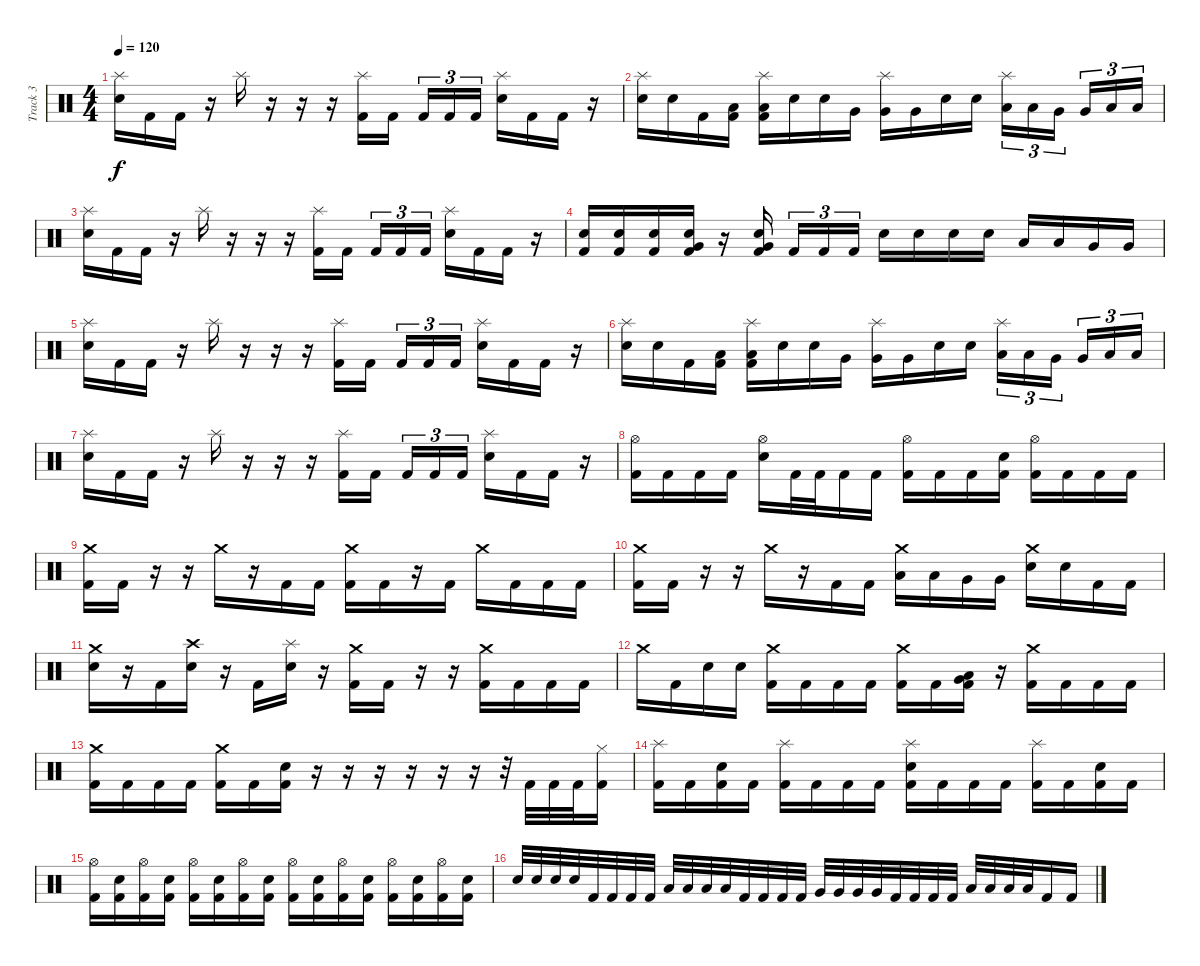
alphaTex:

\track ("Track 3" "Track 3") {instrument percussion}
\staff {score}
\articulation defaults
\ts (4 4)
\tempo 120
\clef neutral
\ks c
("Splash (hit)" "Electric Snare (hit)").16{dy f} "Kick (hit) 2".16 "Kick (hit) 2".16 r.16 "Splash (hit)".16 r.16 r.16 r.16 ("Splash (hit)" "Kick (hit) 2").16 "Kick (hit) 2".16 "Kick (hit) 2".16{tu (3 2)} "Kick (hit) 2".16{tu (3 2)} "Kick (hit) 2".16{tu (3 2)} ("Splash (hit)" "Electric Snare (hit)").16 "Kick (hit) 2".16 "Kick (hit) 2".16 r.16 |
("Splash (hit)" "Electric Snare (hit)").16 "Electric Snare (hit)".16 "Kick (hit) 2".16 ("Kick (hit) 2" "Low Tom (hit)").16 ("Splash (hit)" "Kick (hit) 2" "Low Tom (hit)").16 "Electric Snare (hit)".16 "Electric Snare (hit)".16 "Very Low Tom (hit)".16 ("Splash (hit)" "Very Low Tom (hit)").16 "Very Low Tom (hit)".16 "Electric Snare (hit)".16 "Electric Snare (hit)".16 ("Splash (hit)" "Low Tom (hit)").16{tu (3 2)} "Low Tom (hit)".16{tu (3 2)} "Very Low Tom (hit)".16{tu (3 2)} "Very Low Tom (hit)".16{tu (3 2)} "Low Floor Tom (hit)".16{tu (3 2)} "Low Floor Tom (hit)".16{tu (3 2)} |
("Splash (hit)" "Electric Snare (hit)").16 "Kick (hit) 2".16 "Kick (hit) 2".16 r.16 "Splash (hit)".16 r.16 r.16 r.16 ("Splash (hit)" "Kick (hit) 2").16 "Kick (hit) 2".16 "Kick (hit) 2".16{tu (3 2)} "Kick (hit) 2".16{tu (3 2)} "Kick (hit) 2".16{tu (3 2)} ("Splash (hit)" "Electric Snare (hit)").16 "Kick (hit) 2".16 "Kick (hit) 2".16 r.16 |
("Kick (hit) 2" "Electric Snare (hit)").16 ("Kick (hit) 2" "Electric Snare (hit)").16 ("Kick (hit) 2" "Electric Snare (hit)").16 ("Kick (hit) 2" "Very Low Tom (hit)" "Electric Snare (hit)").16 r.16 ("Kick (hit) 2" "Very Low Tom (hit)" "Electric Snare (hit)").16 "Kick (hit) 2".16{tu (3 2)} "Kick (hit) 2".16{tu (3 2)} "Kick (hit) 2".16{tu (3 2)} "Electric Snare (hit)".16 "Electric Snare (hit)".16 "Electric Snare (hit)".16 "Electric Snare (hit)".16 "Low Tom (hit)".16 "Low Tom (hit)".16 "Very Low Tom (hit)".16 "Very Low Tom (hit)".16 |
("Splash (hit)" "Electric Snare (hit)").16 "Kick (hit) 2".16 "Kick (hit) 2".16 r.16 "Splash (hit)".16 r.16 r.16 r.16 ("Splash (hit)" "Kick (hit) 2").16 "Kick (hit) 2".16 "Kick (hit) 2".16{tu (3 2)} "Kick (hit) 2".16{tu (3 2)} "Kick (hit) 2".16{tu (3 2)} ("Splash (hit)" "Electric Snare (hit)").16 "Kick (hit) 2".16 "Kick (hit) 2".16 r.16 |
("Splash (hit)" "Electric Snare (hit)").16 "Electric Snare (hit)".16 "Kick (hit) 2".16 ("Kick (hit) 2" "Low Tom (hit)").16 ("Splash (hit)" "Kick (hit) 2" "Low Tom (hit)").16 "Electric Snare (hit)".16 "Electric Snare (hit)".16 "Very Low Tom (hit)".16 ("Splash (hit)" "Very Low Tom (hit)").16 "Very Low Tom (hit)".16 "Electric Snare (hit)".16 "Electric Snare (hit)".16 ("Splash (hit)" "Low Tom (hit)").16{tu (3 2)} "Low Tom (hit)".16{tu (3 2)} "Very Low Tom (hit)".16{tu (3 2)} "Very Low Tom (hit)".16{tu (3 2)} "Low Floor Tom (hit)".16{tu (3 2)} "Low Floor Tom (hit)".16{tu (3 2)} |
("Splash (hit)" "Electric Snare (hit)").16 "Kick (hit) 2".16 "Kick (hit) 2".16 r.16 "Splash (hit)".16 r.16 r.16 r.16 ("Splash (hit)" "Kick (hit) 2").16 "Kick (hit) 2".16 "Kick (hit) 2".16{tu (3 2)} "Kick (hit) 2".16{tu (3 2)} "Kick (hit) 2".16{tu (3 2)} ("Splash (hit)" "Electric Snare (hit)").16 "Kick (hit) 2".16 "Kick (hit) 2".16 r.16 |
("Kick (hit) 2" "Hi-Hat (open)").16 "Kick (hit) 2".16 "Kick (hit) 2".16 "Kick (hit) 2".16 ("Electric Snare (hit)" "Hi-Hat (open)").16 "Kick (hit) 2".32 "Kick (hit) 2".32 "Kick (hit) 2".16 "Kick (hit) 2".16 ("Kick (hit) 2" "Hi-Hat (open)").16 "Kick (hit) 2".16 "Kick (hit) 2".16 ("Kick (hit) 2" "Electric Snare (hit)").16 ("Kick (hit) 2" "Hi-Hat (open)").16 "Kick (hit) 2".16 "Kick (hit) 2".16 "Kick (hit) 2".16 |
("Crash medium (hit)" "Kick (hit) 2").16 "Kick (hit) 2".16 r.16 r.16 "Crash medium (hit)".16 r.16 "Kick (hit) 2".16 "Kick (hit) 2".16 ("Crash medium (hit)" "Kick (hit) 2").16 "Kick (hit) 2".16 r.16 "Kick (hit) 2".16 "Crash medium (hit)".16 "Kick (hit) 2".16 "Kick (hit) 2".16 "Kick (hit) 2".16 |
("Crash medium (hit)" "Kick (hit) 2").16 "Kick (hit) 2".16 r.16 r.16 "Crash medium (hit)".16 r.16 "Kick (hit) 2".16 "Kick (hit) 2".16 ("Crash medium (hit)" "Low Tom (hit)").16 "Low Tom (hit)".16 "Very Low Tom (hit)".16 "Very Low Tom (hit)".16 ("Crash medium (hit)" "Electric Snare (hit)").16 "Electric Snare (hit)".16 "Kick (hit) 2".16 "Kick (hit) 2".16 |
("Crash medium (hit)" "Electric Snare (hit)").16 r.16 "Kick (hit) 2".16 ("Crash high (hit)" "Electric Snare (hit)").16 r.16 "Kick (hit) 2".16 ("Splash (hit)" "Electric Snare (hit)").16 r.16 ("Crash medium (hit)" "Kick (hit) 2").16 "Kick (hit) 2".16 r.16 r.16 ("Crash medium (hit)" "Kick (hit) 2").16 "Kick (hit) 2".16 "Kick (hit) 2".16 "Kick (hit) 2".16 |
"Crash medium (hit)".16 "Kick (hit) 2".16 "Electric Snare (hit)".16 "Electric Snare (hit)".16 ("Crash medium (hit)" "Kick (hit) 2").16 "Kick (hit) 2".16 "Kick (hit) 2".16 "Kick (hit) 2".16 ("Crash medium (hit)" "Kick (hit) 2").16 "Kick (hit) 2".16 ("Low Tom (hit)" "Very Low Tom (hit)" "Kick (hit) 2").16 r.16 ("Crash medium (hit)" "Kick (hit) 2").16 "Kick (hit) 2".16 "Kick (hit) 2".16 "Kick (hit) 2".16 |
("Crash medium (hit)" "Kick (hit) 2").16 "Kick (hit) 2".16 "Kick (hit) 2".16 "Kick (hit) 2".16 ("Crash medium (hit)" "Kick (hit) 2").16 "Kick (hit) 2".16 ("Electric Snare (hit)" "Kick (hit) 2").16 r.16 r.16 r.16 r.16 r.16 r.16 r.32 "Kick (hit) 2".32 "Kick (hit) 2".32 "Kick (hit) 2".32 ("Hi-Hat (closed)" "Kick (hit) 2").16 |
("Splash (hit)" "Kick (hit) 2").16 "Kick (hit) 2".16 ("Kick (hit) 2" "Electric Snare (hit)").16 "Kick (hit) 2".16 ("Splash (hit)" "Kick (hit) 2").16 "Kick (hit) 2".16 "Kick (hit) 2".16 "Kick (hit) 2".16 ("Splash (hit)" "Kick (hit) 2" "Electric Snare (hit)").16 "Kick (hit) 2".16 "Kick (hit) 2".16 "Kick (hit) 2".16 ("Splash (hit)" "Kick (hit) 2").16 "Kick (hit) 2".16 ("Kick (hit) 2" "Electric Snare (hit)").16 "Kick (hit) 2".16 |
("Hi-Hat (open)" "Kick (hit) 2").16 ("Kick (hit) 2" "Electric Snare (hit)").16 ("Hi-Hat (open)" "Kick (hit) 2").16 ("Kick (hit) 2" "Electric Snare (hit)").16 ("Hi-Hat (open)" "Kick (hit) 2").16 ("Kick (hit) 2" "Electric Snare (hit)").16 ("Hi-Hat (open)" "Kick (hit) 2").16 ("Kick (hit) 2" "Electric Snare (hit)").16 ("Hi-Hat (open)" "Kick (hit) 2").16 ("Kick (hit) 2" "Electric Snare (hit)").16 ("Hi-Hat (open)" "Kick (hit) 2").16 ("Kick (hit) 2" "Electric Snare (hit)").16 ("Hi-Hat (open)" "Kick (hit) 2").16 ("Kick (hit) 2" "Electric Snare (hit)").16 ("Hi-Hat (open)" "Kick (hit) 2").16 ("Kick (hit) 2" "Electric Snare (hit)").16 |
"Electric Snare (hit)".32 "Electric Snare (hit)".32 "Electric Snare (hit)".32 "Electric Snare (hit)".32 "Kick (hit) 2".32 "Kick (hit) 2".32 "Kick (hit) 2".32 "Kick (hit) 2".32 "Low Tom (hit)".32 "Low Tom (hit)".32 "Low Tom (hit)".32 "Low Tom (hit)".32 "Kick (hit) 2".32 "Kick (hit) 2".32 "Kick (hit) 2".32 "Kick (hit) 2".32 "Very Low Tom (hit)".32 "Very Low Tom (hit)".32 "Very Low Tom (hit)".32 "Very Low Tom (hit)".32 "Kick (hit) 2".32 "Kick (hit) 2".32 "Kick (hit) 2".32 "Kick (hit) 2".32 "Low Floor Tom (hit)".32 "Low Floor Tom (hit)".32 "Low Floor Tom (hit)".32 "Low Floor Tom (hit)".32 "Kick (hit) 2".16 "Kick (hit) 2".16
